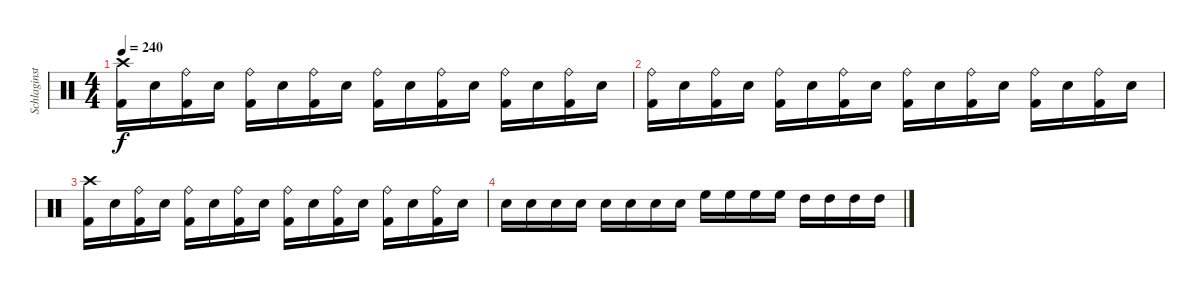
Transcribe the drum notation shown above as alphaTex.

\track ("Schlaginstrumente - Auswahl" "Schlaginst") {instrument percussion}
\staff {score}
\articulation defaults
\ts (4 4)
\tempo 240
\clef neutral
\ks c
("Kick (hit) 2" "Crash high (hit)").16{dy f} "Snare (hit) 2".16 ("Kick (hit) 2" "Ride (bell)").16 "Snare (hit) 2".16 ("Kick (hit) 2" "Ride (bell)").16 "Snare (hit) 2".16 ("Kick (hit) 2" "Ride (bell)").16 "Snare (hit) 2".16 ("Kick (hit) 2" "Ride (bell)").16 "Snare (hit) 2".16 ("Kick (hit) 2" "Ride (bell)").16 "Snare (hit) 2".16 ("Kick (hit) 2" "Ride (bell)").16 "Snare (hit) 2".16 ("Kick (hit) 2" "Ride (bell)").16 "Snare (hit) 2".16 |
("Kick (hit) 2" "Ride (bell)").16 "Snare (hit) 2".16 ("Kick (hit) 2" "Ride (bell)").16 "Snare (hit) 2".16 ("Kick (hit) 2" "Ride (bell)").16 "Snare (hit) 2".16 ("Kick (hit) 2" "Ride (bell)").16 "Snare (hit) 2".16 ("Kick (hit) 2" "Ride (bell)").16 "Snare (hit) 2".16 ("Kick (hit) 2" "Ride (bell)").16 "Snare (hit) 2".16 ("Kick (hit) 2" "Ride (bell)").16 "Snare (hit) 2".16 ("Kick (hit) 2" "Ride (bell)").16 "Snare (hit) 2".16 |
("Kick (hit) 2" "Crash high (hit)").16 "Snare (hit) 2".16 ("Kick (hit) 2" "Ride (bell)").16 "Snare (hit) 2".16 ("Kick (hit) 2" "Ride (bell)").16 "Snare (hit) 2".16 ("Kick (hit) 2" "Ride (bell)").16 "Snare (hit) 2".16 ("Kick (hit) 2" "Ride (bell)").16 "Snare (hit) 2".16 ("Kick (hit) 2" "Ride (bell)").16 "Snare (hit) 2".16 ("Kick (hit) 2" "Ride (bell)").16 "Snare (hit) 2".16 ("Kick (hit) 2" "Ride (bell)").16 "Snare (hit) 2".16 |
"Snare (hit) 2".16 "Snare (hit) 2".16 "Snare (hit) 2".16 "Snare (hit) 2".16 "Snare (hit) 2".16 "Snare (hit) 2".16 "Snare (hit) 2".16 "Snare (hit) 2".16 "High Floor Tom (hit)".16 "High Floor Tom (hit)".16 "High Floor Tom (hit)".16 "High Floor Tom (hit)".16 "High Tom (hit)".16 "High Tom (hit)".16 "High Tom (hit)".16 "High Tom (hit)".16
